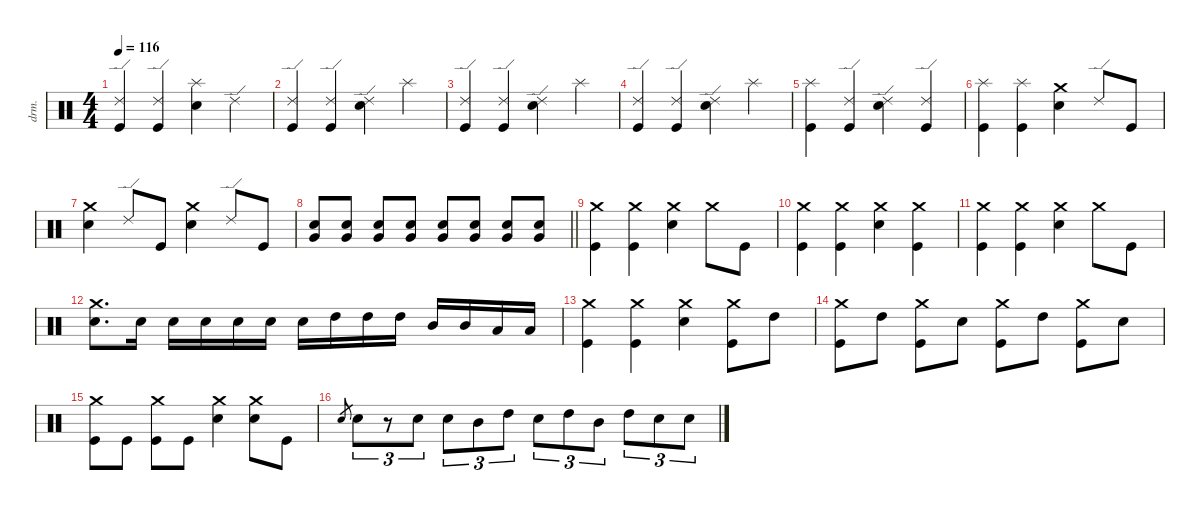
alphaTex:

\defaultSystemsLayout 4
\hideDynamics
\bracketExtendMode nobrackets
\otherSystemsTrackNameOrientation horizontal
\track ("Drum" "drm.") {instrument percussion}
\staff {score}
\articulation defaults
\ts (4 4)
\tempo 116
\clef neutral
\ks c
("Kick (hit)" "Ride (edge) 2").4{dy f beam Up} ("Kick (hit)" "Ride (edge) 2").4{beam Up} ("Snare (hit) 2" "Splash (hit)").4{beam Down} "Ride (edge) 2".4{beam Down} |
("Kick (hit)" "Ride (edge) 2").4{beam Up} ("Kick (hit)" "Ride (edge) 2").4{beam Up} ("Snare (hit) 2" "Ride (edge) 2").4{beam Down} "Splash (hit)".4{beam Down} |
("Kick (hit)" "Ride (edge) 2").4{beam Up} ("Kick (hit)" "Ride (edge) 2").4{beam Up} ("Snare (hit) 2" "Ride (edge) 2").4{beam Down} "Splash (hit)".4{beam Down} |
("Kick (hit)" "Ride (edge) 2").4{beam Up} ("Kick (hit)" "Ride (edge) 2").4{beam Up} ("Snare (hit) 2" "Ride (edge) 2").4{beam Down} "Splash (hit)".4{beam Down} |
("Kick (hit)" "Splash (hit)").4{beam Down} ("Kick (hit)" "Ride (edge) 2").4{beam Up} ("Snare (hit) 2" "Ride (edge) 2").4{beam Down} ("Kick (hit)" "Ride (edge) 2").4{beam Up} |
("Kick (hit)" "Splash (hit)").4{beam Down} ("Kick (hit)" "Splash (hit)").4{beam Down} ("Snare (hit) 2" "Crash medium (hit)").4{beam Down} "Ride (edge) 2".8{beam Up} "Kick (hit)".8{beam Up} |
("Snare (hit) 2" "Crash medium (hit)").4{beam Down} "Ride (edge) 2".8{beam Up} "Kick (hit)".8{beam Up} ("Snare (hit) 2" "Crash medium (hit)").4{beam Down} "Ride (edge) 2".8{beam Up} "Kick (hit)".8{beam Up} |
\barLineRight lightlight
("Snare (hit) 2" "Very Low Tom (hit)").8{beam Up} ("Snare (hit) 2" "Very Low Tom (hit)").8{beam Up} ("Snare (hit) 2" "Very Low Tom (hit)").8{beam Up} ("Snare (hit) 2" "Very Low Tom (hit)").8{beam Up} ("Snare (hit) 2" "Very Low Tom (hit)").8{beam Up} ("Snare (hit) 2" "Very Low Tom (hit)").8{beam Up} ("Snare (hit) 2" "Very Low Tom (hit)").8{beam Up} ("Snare (hit) 2" "Very Low Tom (hit)").8{beam Up} |
("Kick (hit)" "Crash medium (hit)").4{beam Down} ("Kick (hit)" "Crash medium (hit)").4{beam Down} ("Snare (hit) 2" "Crash medium (hit)").4{beam Down} "Crash medium (hit)".8{beam Down} "Kick (hit)".8{beam Down} |
("Kick (hit)" "Crash medium (hit)").4{beam Down} ("Kick (hit)" "Crash medium (hit)").4{beam Down} ("Snare (hit) 2" "Crash medium (hit)").4{beam Down} ("Kick (hit)" "Crash medium (hit)").4{beam Down} |
("Kick (hit)" "Crash medium (hit)").4{beam Down} ("Kick (hit)" "Crash medium (hit)").4{beam Down} ("Snare (hit) 2" "Crash medium (hit)").4{beam Down} "Crash medium (hit)".8{beam Down} "Kick (hit)".8{beam Down} |
("Snare (hit) 2" "Crash medium (hit)").8{d beam Down} "Snare (hit) 2".16{beam Down} "Snare (hit) 2".16{beam Down} "Snare (hit) 2".16{beam Down} "Snare (hit) 2".16{beam Down} "Snare (hit) 2".16{beam Down} "Snare (hit) 2".16{beam Down} "High Tom (hit)".16{beam Down} "High Tom (hit)".16{beam Down} "High Tom (hit)".16{beam Down} "Mid Tom (hit)".16{beam Up} "Mid Tom (hit)".16{beam Up} "Low Tom (hit)".16{beam Up} "Low Tom (hit)".16{beam Up} |
("Kick (hit)" "Crash medium (hit)").4{beam Down} ("Kick (hit)" "Crash medium (hit)").4{beam Down} ("Snare (hit) 2" "Crash medium (hit)").4{beam Down} ("Kick (hit)" "Crash medium (hit)").8{beam Down} "High Tom (hit)".8{beam Down} |
("Kick (hit)" "Crash medium (hit)").8{beam Down} "High Tom (hit)".8{beam Down} ("Kick (hit)" "Crash medium (hit)").8{beam Down} "Snare (hit) 2".8{beam Down} ("Kick (hit)" "Crash medium (hit)").8{beam Down} "High Tom (hit)".8{beam Down} ("Kick (hit)" "Crash medium (hit)").8{beam Down} "Snare (hit) 2".8{beam Down} |
("Kick (hit)" "Crash medium (hit)").8{beam Down} "Kick (hit)".8{beam Down} ("Kick (hit)" "Crash medium (hit)").8{beam Down} "Kick (hit)".8{beam Down} ("Snare (hit) 2" "Crash medium (hit)").4{beam Down} ("Snare (hit) 2" "Crash medium (hit)").8{beam Down} "Kick (hit)".8{beam Down} |
"Electric Snare (hit)".8{gr dy mf beam Up} "Snare (hit) 2".8{tu (3 2) dy f beam Down} r.8{tu (3 2) beam Down} "Snare (hit) 2".8{tu (3 2) beam Down} "Snare (hit) 2".8{tu (3 2) beam Down} "Mid Tom (hit)".8{tu (3 2) beam Down} "High Tom (hit)".8{tu (3 2) beam Down} "Snare (hit) 2".8{tu (3 2) beam Down} "High Tom (hit)".8{tu (3 2) beam Down} "Mid Tom (hit)".8{tu (3 2) beam Down} "High Tom (hit)".8{tu (3 2) beam Down} "Snare (hit) 2".8{tu (3 2) beam Down} "Snare (hit) 2".8{tu (3 2) beam Down}
